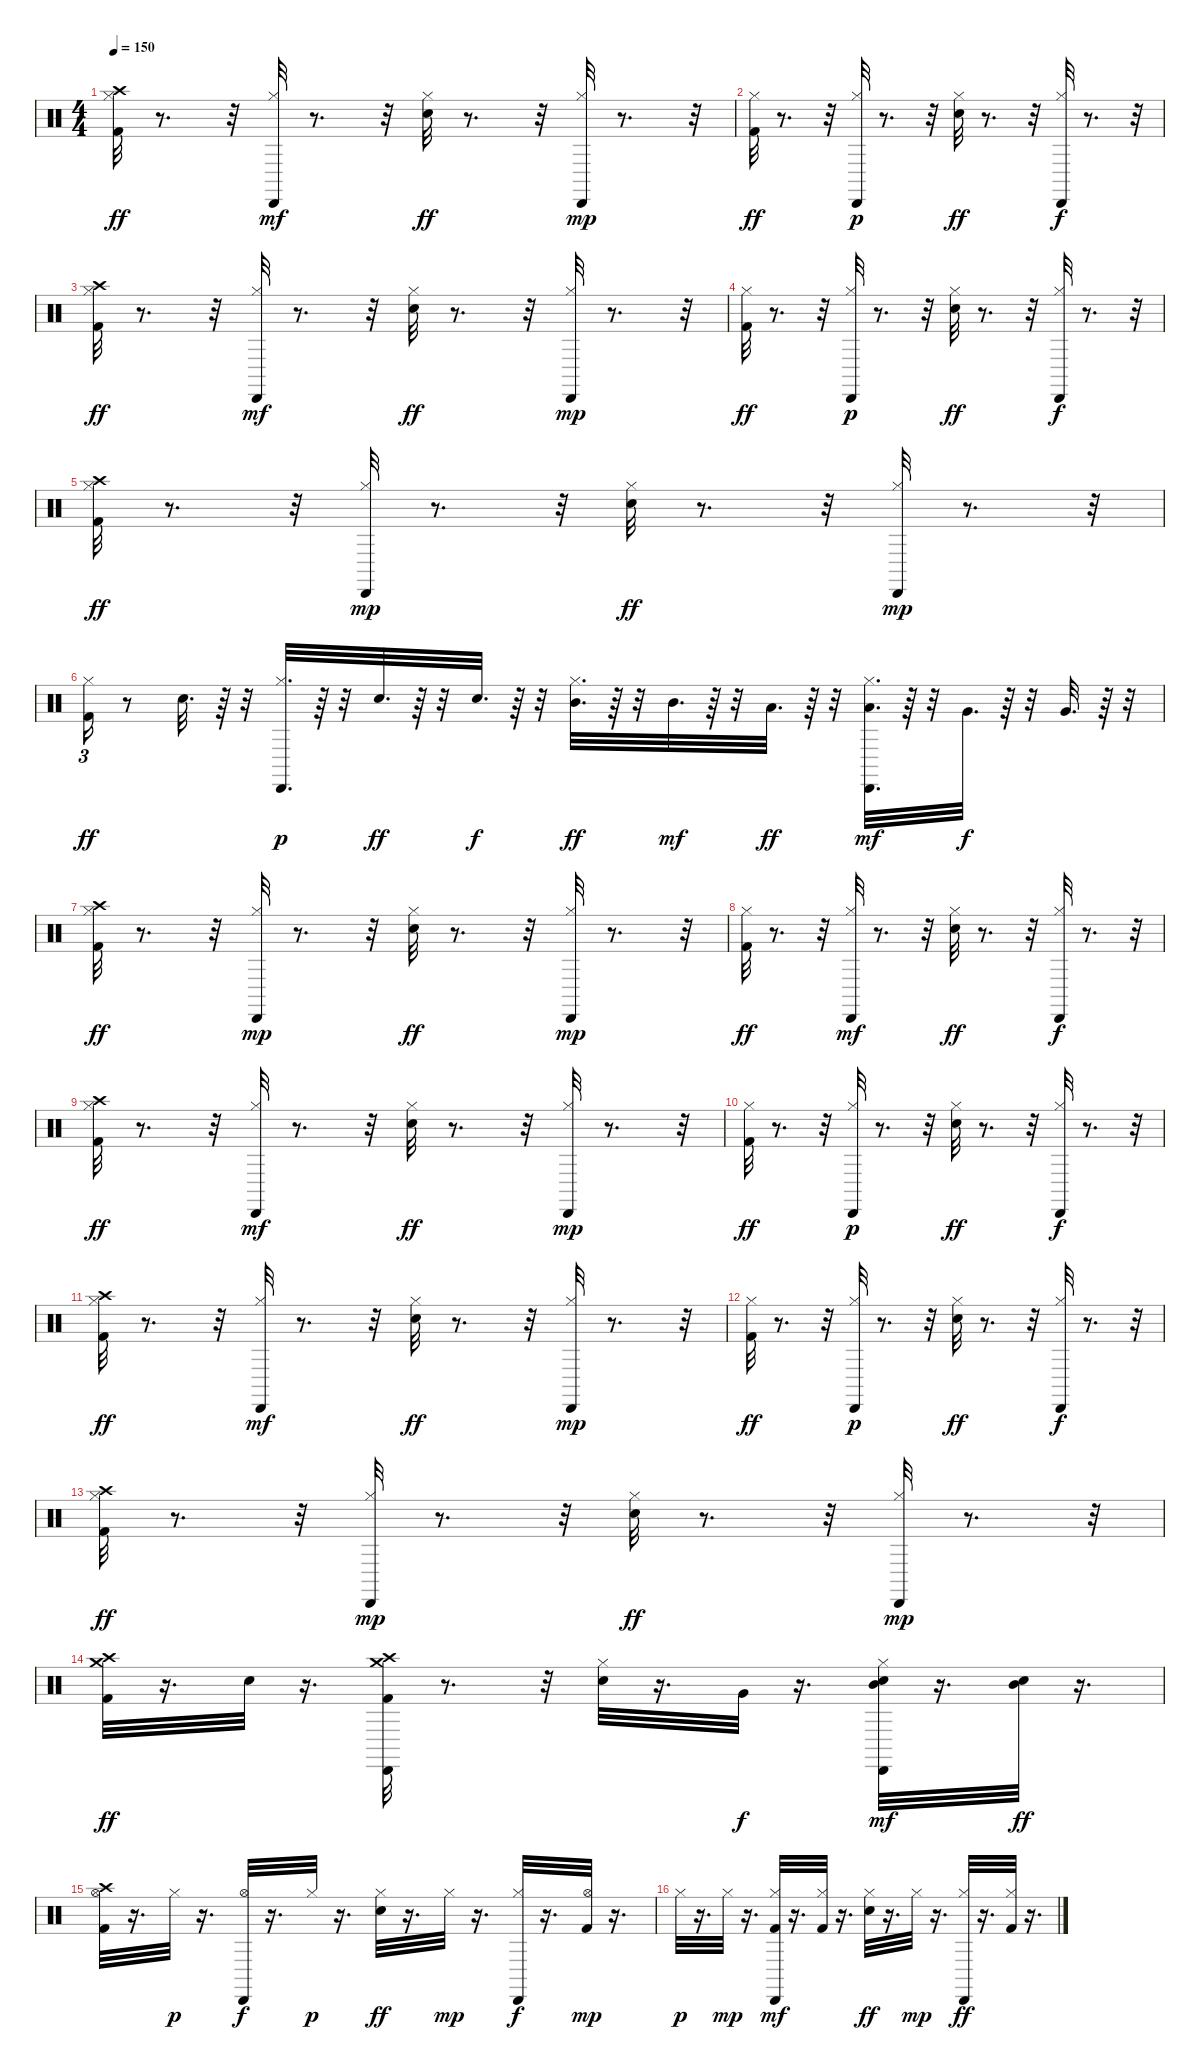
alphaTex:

\track "" {instrument percussion}
\staff {score}
\articulation defaults
\ts (4 4)
\tempo 150
\clef neutral
\ks c
("Kick (hit) 2" "Hi-Hat (closed)" "Crash high (hit)").32{dy ff} r.8{d} r.32 ("Hi-Hat (closed)" "Cabasa (hit)").32{dy mf} r.8{d} r.32 ("Hi-Hat (closed)" "Snare (hit) 2").32{dy ff} r.8{d} r.32 ("Hi-Hat (closed)" "Cabasa (hit)").32{dy mp} r.8{d} r.32 |
("Kick (hit) 2" "Hi-Hat (closed)").32{dy ff} r.8{d} r.32 ("Hi-Hat (closed)" "Cabasa (hit)").32{dy p} r.8{d} r.32 ("Hi-Hat (closed)" "Snare (hit) 2").32{dy ff} r.8{d} r.32 ("Hi-Hat (closed)" "Cabasa (hit)").32{dy f} r.8{d} r.32 |
("Kick (hit) 2" "Hi-Hat (closed)" "Crash high (hit)").32{dy ff} r.8{d} r.32 ("Hi-Hat (closed)" "Cabasa (hit)").32{dy mf} r.8{d} r.32 ("Hi-Hat (closed)" "Snare (hit) 2").32{dy ff} r.8{d} r.32 ("Hi-Hat (closed)" "Cabasa (hit)").32{dy mp} r.8{d} r.32 |
("Kick (hit) 2" "Hi-Hat (closed)").32{dy ff} r.8{d} r.32 ("Hi-Hat (closed)" "Cabasa (hit)").32{dy p} r.8{d} r.32 ("Hi-Hat (closed)" "Snare (hit) 2").32{dy ff} r.8{d} r.32 ("Hi-Hat (closed)" "Cabasa (hit)").32{dy f} r.8{d} r.32 |
("Kick (hit) 2" "Hi-Hat (closed)" "Crash high (hit)").32{dy ff} r.8{d} r.32 ("Hi-Hat (closed)" "Cabasa (hit)").32{dy mp} r.8{d} r.32 ("Hi-Hat (closed)" "Snare (hit) 2").32{dy ff} r.8{d} r.32 ("Hi-Hat (closed)" "Cabasa (hit)").32{dy mp} r.8{d} r.32 |
("Kick (hit) 2" "Hi-Hat (closed)").16{tu (3 2) dy ff} r.8 "Snare (hit) 2".32{d} r.64 r.32 ("Hi-Hat (closed)" "Cabasa (hit)").32{d dy p} r.64 r.32 "Snare (hit) 2".32{d dy ff} r.64 r.32 "Snare (hit) 2".32{d dy f} r.64 r.32 ("Hi-Hat (closed)" "Mid Tom (hit)").32{d dy ff} r.64 r.32 "Mid Tom (hit)".32{d dy mf} r.64 r.32 "Low Tom (hit)".32{d dy ff} r.64 r.32 ("Hi-Hat (closed)" "Low Tom (hit)" "Cabasa (hit)").32{d dy mf} r.64 r.32 "Very Low Tom (hit)".32{d dy f} r.64 r.32 "Very Low Tom (hit)".32{d} r.64 r.32 |
("Kick (hit) 2" "Hi-Hat (closed)" "Crash high (hit)").32{dy ff} r.8{d} r.32 ("Hi-Hat (closed)" "Cabasa (hit)").32{dy mp} r.8{d} r.32 ("Hi-Hat (closed)" "Snare (hit) 2").32{dy ff} r.8{d} r.32 ("Hi-Hat (closed)" "Cabasa (hit)").32{dy mp} r.8{d} r.32 |
("Kick (hit) 2" "Hi-Hat (closed)").32{dy ff} r.8{d} r.32 ("Hi-Hat (closed)" "Cabasa (hit)").32{dy mf} r.8{d} r.32 ("Hi-Hat (closed)" "Snare (hit) 2").32{dy ff} r.8{d} r.32 ("Hi-Hat (closed)" "Cabasa (hit)").32{dy f} r.8{d} r.32 |
("Kick (hit) 2" "Hi-Hat (closed)" "Crash high (hit)").32{dy ff} r.8{d} r.32 ("Hi-Hat (closed)" "Cabasa (hit)").32{dy mf} r.8{d} r.32 ("Hi-Hat (closed)" "Snare (hit) 2").32{dy ff} r.8{d} r.32 ("Hi-Hat (closed)" "Cabasa (hit)").32{dy mp} r.8{d} r.32 |
("Kick (hit) 2" "Hi-Hat (closed)").32{dy ff} r.8{d} r.32 ("Hi-Hat (closed)" "Cabasa (hit)").32{dy p} r.8{d} r.32 ("Hi-Hat (closed)" "Snare (hit) 2").32{dy ff} r.8{d} r.32 ("Hi-Hat (closed)" "Cabasa (hit)").32{dy f} r.8{d} r.32 |
("Kick (hit) 2" "Hi-Hat (closed)" "Crash high (hit)").32{dy ff} r.8{d} r.32 ("Hi-Hat (closed)" "Cabasa (hit)").32{dy mf} r.8{d} r.32 ("Hi-Hat (closed)" "Snare (hit) 2").32{dy ff} r.8{d} r.32 ("Hi-Hat (closed)" "Cabasa (hit)").32{dy mp} r.8{d} r.32 |
("Kick (hit) 2" "Hi-Hat (closed)").32{dy ff} r.8{d} r.32 ("Hi-Hat (closed)" "Cabasa (hit)").32{dy p} r.8{d} r.32 ("Hi-Hat (closed)" "Snare (hit) 2").32{dy ff} r.8{d} r.32 ("Hi-Hat (closed)" "Cabasa (hit)").32{dy f} r.8{d} r.32 |
("Kick (hit) 2" "Hi-Hat (closed)" "Crash high (hit)").32{dy ff} r.8{d} r.32 ("Hi-Hat (closed)" "Cabasa (hit)").32{dy mp} r.8{d} r.32 ("Hi-Hat (closed)" "Snare (hit) 2").32{dy ff} r.8{d} r.32 ("Hi-Hat (closed)" "Cabasa (hit)").32{dy mp} r.8{d} r.32 |
("Kick (hit) 2" "Crash medium (hit)" "Crash high (hit)").32{dy ff} r.16{d} "Snare (hit) 2".32 r.16{d} ("Kick (hit) 2" "Crash medium (hit)" "Cabasa (hit)" "Crash high (hit)").32 r.8{d} r.32 ("Hi-Hat (closed)" "Snare (hit) 2").32 r.16{d} "Very Low Tom (hit)".32{dy f} r.16{d} ("Hi-Hat (closed)" "Mid Tom (hit)" "Snare (hit) 2" "Cabasa (hit)").32{dy mf} r.16{d} ("Mid Tom (hit)" "Snare (hit) 2").32{dy ff} r.16{d} |
("Kick (hit) 2" "Crash high (hit)" "Hi-Hat (open)").32 r.16{d} "Hi-Hat (closed)".32{dy p} r.16{d} ("Hi-Hat (open)" "Cabasa (hit)").32{dy f} r.16{d} "Hi-Hat (closed)".32{dy p} r.16{d} ("Hi-Hat (closed)" "Snare (hit) 2").32{dy ff} r.16{d} "Hi-Hat (closed)".32{dy mp} r.16{d} ("Hi-Hat (closed)" "Cabasa (hit)").32{dy f} r.16{d} ("Hi-Hat (open)" "Kick (hit) 2").32{dy mp} r.16{d} |
"Hi-Hat (closed)".32{dy p} r.16{d} "Hi-Hat (closed)".32{dy mp} r.16{d} ("Kick (hit) 2" "Hi-Hat (closed)" "Cabasa (hit)").32{dy mf} r.16{d} ("Hi-Hat (closed)" "Kick (hit) 2").32 r.16{d} ("Hi-Hat (closed)" "Snare (hit) 2").32{dy ff} r.16{d} "Hi-Hat (closed)".32{dy mp} r.16{d} ("Hi-Hat (closed)" "Cabasa (hit)").32{dy ff} r.16{d} ("Hi-Hat (closed)" "Kick (hit) 2").32 r.16{d}
